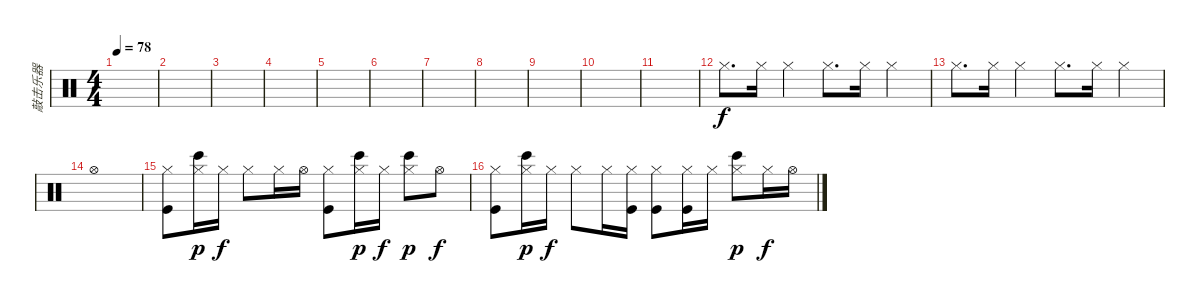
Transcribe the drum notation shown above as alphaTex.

\track ("敲击乐器" "敲击乐器") {instrument percussion}
\staff {score}
\articulation defaults
\ts (4 4)
\tempo 78
\clef neutral
\ks c
|
|
|
|
|
|
|
|
|
|
|
"Hi-Hat (closed)".8{d} "Hi-Hat (closed)".16 "Hi-Hat (closed)".4 "Hi-Hat (closed)".8{d} "Hi-Hat (closed)".16 "Hi-Hat (closed)".4 |
"Hi-Hat (closed)".8{d} "Hi-Hat (closed)".16 "Hi-Hat (closed)".4 "Hi-Hat (closed)".8{d} "Hi-Hat (closed)".16 "Hi-Hat (closed)".4 |
"Hi-Hat (open)".1 |
("Hi-Hat (closed)" "Kick (hit)").8 ("Hi-Hat (closed)" "Bongo High (hit)").16{dy p} "Hi-Hat (closed)".16{dy f} "Hi-Hat (closed)".8 "Hi-Hat (closed)".16 "Hi-Hat (open)".16 ("Hi-Hat (closed)" "Kick (hit)").8 ("Hi-Hat (closed)" "Bongo High (hit)").16{dy p} "Hi-Hat (closed)".16{dy f} ("Hi-Hat (closed)" "Bongo High (hit)").8{dy p} "Hi-Hat (open)".8{dy f} |
("Hi-Hat (closed)" "Kick (hit)").8 ("Hi-Hat (closed)" "Bongo High (hit)").16{dy p} "Hi-Hat (closed)".16{dy f} "Hi-Hat (closed)".8 "Hi-Hat (closed)".16 ("Hi-Hat (closed)" "Kick (hit)").16 ("Hi-Hat (closed)" "Kick (hit)").8 ("Hi-Hat (closed)" "Kick (hit)").16 "Hi-Hat (closed)".16 ("Hi-Hat (closed)" "Bongo High (hit)").8{dy p} "Hi-Hat (closed)".16{dy f} "Hi-Hat (open)".16
